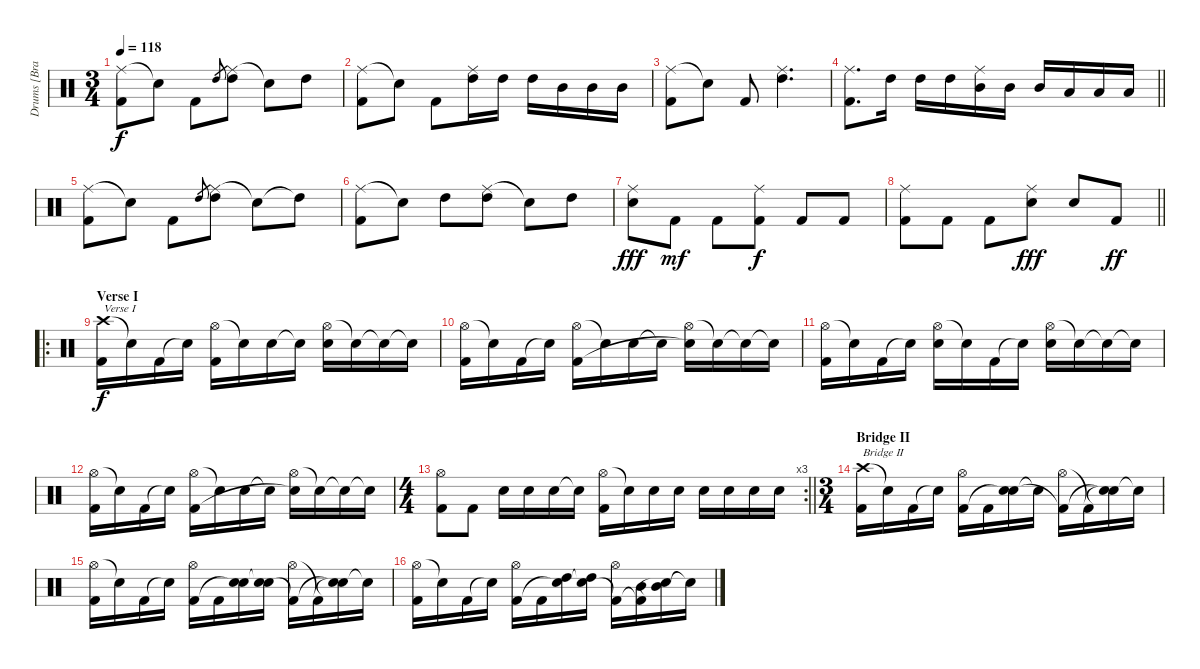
\track ("Drums [Brann Dailor]" "Drums [Bra") {instrument percussion}
\staff {score}
\articulation defaults
\ts (3 4)
\tempo 118
\clef neutral
\ks c
("Ride (middle)" "Kick (hit) 2").8{dy f} "Snare (hit)"{t}.8 "Kick (hit) 2".8 "High Tom (hit)".8{gr} ("Ride (middle)" "High Tom (hit)").8 "Snare (hit)"{t}.8 "High Tom (hit)".8 |
("Ride (middle)" "Kick (hit) 2").8 "Snare (hit)"{t}.8 "Kick (hit) 2".8 ("Ride (middle)" "High Tom (hit)").16 "High Tom (hit)".16 "High Tom (hit)".16 "Mid Tom (hit)".16 "Mid Tom (hit)".16 "Mid Tom (hit)".16 |
("Ride (middle)" "Kick (hit) 2").8 "Snare (hit)"{t}.8 "Kick (hit) 2".8 ("Ride (middle)" "High Tom (hit)").4{d} |
\barLineRight lightlight
("Ride (middle)" "Kick (hit) 2").8{d} "High Tom (hit)".16 "High Tom (hit)".16 "High Tom (hit)".16 ("Ride (middle)" "Mid Tom (hit)").16 "Mid Tom (hit)".16 "Mid Tom (hit)".16 "Low Tom (hit)".16 "Low Tom (hit)".16 "Low Tom (hit)".16 |
("Ride (middle)" "Kick (hit) 2").8 "Snare (hit)"{t}.8 "Kick (hit) 2".8 "High Tom (hit)".8{gr} ("Ride (middle)" "High Tom (hit)").8 "Snare (hit)"{t}.8 "High Tom (hit)"{t}.8 |
("Ride (middle)" "Kick (hit) 2").8 "Snare (hit)"{t}.8 "High Tom (hit)".8 ("Ride (middle)" "High Tom (hit)").8 "Snare (hit)"{t}.8 "High Tom (hit)".8 |
("Ride (middle)" "Electric Snare (hit)").8{dy fff} "Kick (hit) 2".8{dy mf} "Kick (hit) 2".8 ("Ride (middle)" "Kick (hit) 2").8{dy f} "Kick (hit) 2".8 "Kick (hit) 2".8 |
\barLineRight lightlight
("Ride (middle)" "Kick (hit) 2").8 "Kick (hit) 2".8 "Kick (hit) 2".8 ("Ride (middle)" "Electric Snare (hit)").8{dy fff} "Electric Snare (hit)".8 "Kick (hit) 2".8{dy ff} |
\ro
\section ("" "Verse I")
("Crash high (hit)" "Kick (hit) 2").16{txt "Verse I" dy f} "Snare (hit)"{t}.16 "Kick (hit) 2".16 "Snare (hit)"{t}.16 ("Hi-Hat (open)" "Kick (hit) 2").16 "Snare (hit)"{t}.16 "Electric Snare (hit)".16 "Snare (hit)"{t}.16 ("Hi-Hat (open)" "Electric Snare (hit)").16 "Snare (hit)"{t}.16 "Snare (hit)"{t}.16 "Snare (hit)"{t}.16 |
("Hi-Hat (open)" "Kick (hit) 2").16 "Snare (hit)"{t}.16 "Kick (hit) 2".16 "Snare (hit)"{t}.16 ("Hi-Hat (open)" "Kick (hit) 2").16 "Snare (hit)"{t}.16 "Electric Snare (hit)".16 "Snare (hit)"{t}.16 ("Hi-Hat (open)" "Electric Snare (hit)"{t}).16 "Snare (hit)"{t}.16 "Snare (hit)"{t}.16 "Snare (hit)"{t}.16 |
("Hi-Hat (open)" "Kick (hit) 2").16 "Snare (hit)"{t}.16 "Kick (hit) 2".16 "Snare (hit)"{t}.16 ("Hi-Hat (open)" "Electric Snare (hit)").16 "Snare (hit)"{t}.16 "Kick (hit) 2".16 "Snare (hit)"{t}.16 ("Hi-Hat (open)" "Electric Snare (hit)").16 "Snare (hit)"{t}.16 "Snare (hit)"{t}.16 "Snare (hit)"{t}.16 |
("Hi-Hat (open)" "Kick (hit) 2").16 "Snare (hit)"{t}.16 "Kick (hit) 2".16 "Snare (hit)"{t}.16 ("Hi-Hat (open)" "Kick (hit) 2").16 "Snare (hit)"{t}.16 "Electric Snare (hit)".16 "Snare (hit)"{t}.16 ("Hi-Hat (open)" "Electric Snare (hit)"{t}).16 "Snare (hit)"{t}.16 "Snare (hit)"{t}.16 "Snare (hit)"{t}.16 |
\rc 3
\ts (4 4)
\barLineRight lightlight
("Hi-Hat (open)" "Kick (hit) 2").8 "Kick (hit) 2".8 "Electric Snare (hit)".16 "Electric Snare (hit)".16 "Electric Snare (hit)".16 "Snare (hit)"{t}.16 ("Hi-Hat (open)" "Kick (hit) 2").16 "Snare (hit)"{t}.16 "Electric Snare (hit)".16 "Electric Snare (hit)".16 "Electric Snare (hit)".16 "Electric Snare (hit)".16 "Electric Snare (hit)".16 "Electric Snare (hit)".16 |
\ts (3 4)
\section ("" "Bridge II")
("Crash high (hit)" "Kick (hit) 2").16{txt "Bridge II"} "Snare (hit)"{t}.16 "Kick (hit) 2".16 "Snare (hit)"{t}.16 ("Hi-Hat (open)" "Kick (hit) 2").16 "Kick (hit) 2".16 ("Electric Snare (hit)" "Snare (hit)"{t}).16 "Snare (hit)"{t}.16 ("Hi-Hat (open)" "Kick (hit) 2"{t}).16 "Kick (hit) 2"{t}.16 ("Electric Snare (hit)"{t} "Snare (hit)"{t}).16 "Snare (hit)"{t}.16 |
("Hi-Hat (open)" "Kick (hit) 2").16 "Snare (hit)"{t}.16 "Kick (hit) 2".16 "Snare (hit)"{t}.16 ("Hi-Hat (open)" "Kick (hit) 2").16 "Kick (hit) 2".16 ("Electric Snare (hit)" "Snare (hit)"{t}).16 ("Electric Snare (hit)" "Snare (hit)"{t}).16 ("Hi-Hat (open)" "Kick (hit) 2"{t}).16 "Kick (hit) 2"{t}.16 ("Electric Snare (hit)"{t} "Snare (hit)"{t}).16 "Snare (hit)"{t}.16 |
("Hi-Hat (open)" "Kick (hit) 2").16 "Snare (hit)"{t}.16 "Kick (hit) 2".16 "Snare (hit)"{t}.16 ("Hi-Hat (open)" "Kick (hit) 2").16 "Kick (hit) 2".16 ("High Tom (hit)" "Snare (hit)"{t}).16 ("High Tom (hit)" "Snare (hit)"{t}).16 ("Hi-Hat (open)" "Kick (hit) 2"{t}).16 ("Mid Tom (hit)" "Kick (hit) 2"{t}).16 ("Mid Tom (hit)" "Snare (hit)"{t}).16 "Snare (hit)"{t}.16
